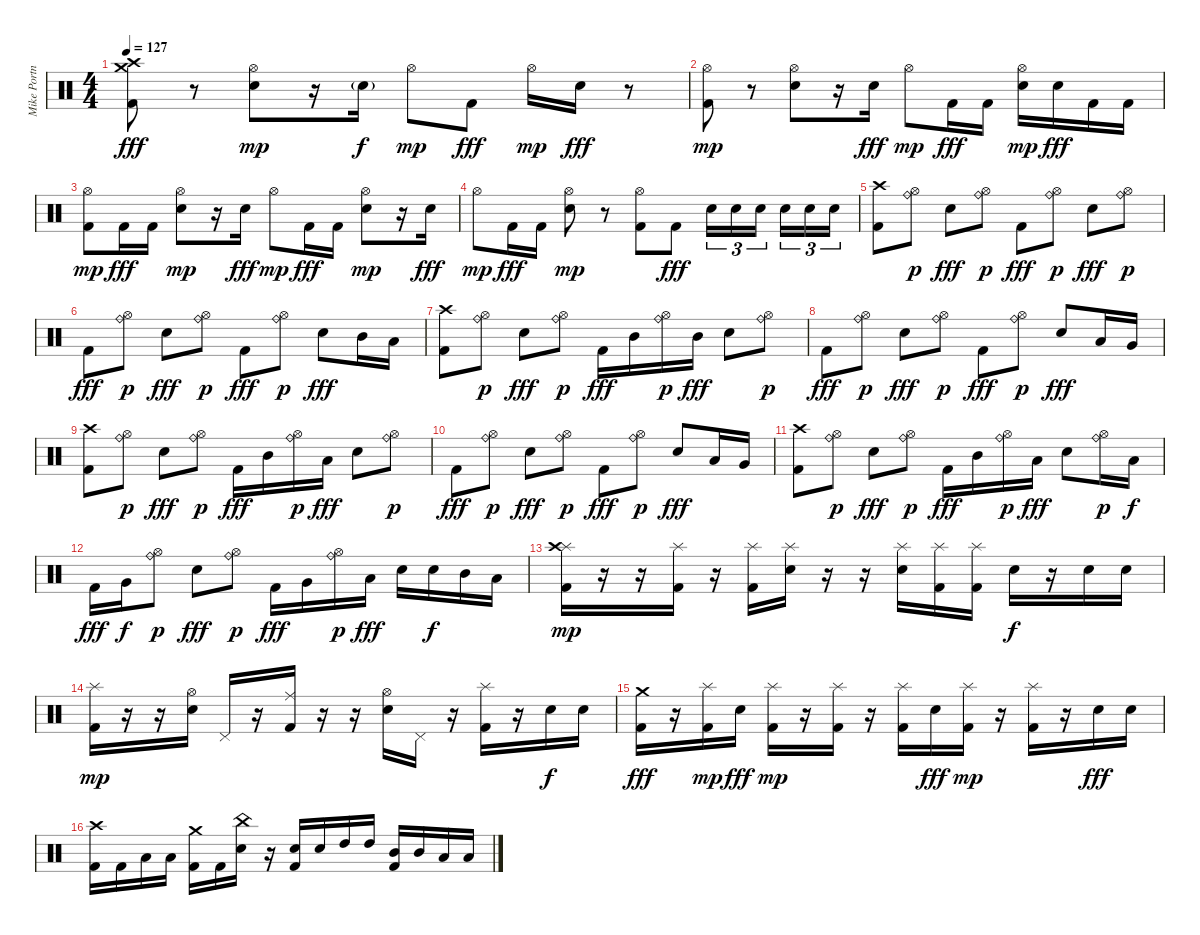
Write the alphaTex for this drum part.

\track ("Mike Portnoy" "Mike Portn") {instrument percussion}
\staff {score}
\articulation defaults
\ts (4 4)
\tempo 127
\clef neutral
\ks c
("Kick (hit) 2" "Crash high (hit)" "Crash medium (hit)").8{dy fff} r.8 ("Electric Snare (hit)" "Hi-Hat (open)").8{dy mp} r.16 "Electric Snare (hit)"{g}.16{dy f} "Hi-Hat (open)".8{dy mp} "Kick (hit) 2".8{dy fff} "Hi-Hat (open)".16{dy mp} "Electric Snare (hit)".16{dy fff} r.8 |
("Kick (hit) 2" "Hi-Hat (open)").8{dy mp} r.8 ("Electric Snare (hit)" "Hi-Hat (open)").8 r.16 "Electric Snare (hit)".16{dy fff} "Hi-Hat (open)".8{dy mp} "Kick (hit) 2".16{dy fff} "Kick (hit) 2".16 ("Electric Snare (hit)" "Hi-Hat (open)").16{dy mp} "Electric Snare (hit)".16{dy fff} "Kick (hit) 2".16 "Kick (hit) 2".16 |
("Kick (hit) 2" "Hi-Hat (open)").8{dy mp} "Kick (hit) 2".16{dy fff} "Kick (hit) 2".16 ("Electric Snare (hit)" "Hi-Hat (open)").8{dy mp} r.16 "Electric Snare (hit)".16{dy fff} "Hi-Hat (open)".8{dy mp} "Kick (hit) 2".16{dy fff} "Kick (hit) 2".16 ("Electric Snare (hit)" "Hi-Hat (open)").8{dy mp} r.16 "Electric Snare (hit)".16{dy fff} |
"Hi-Hat (open)".8{dy mp} "Kick (hit) 2".16{dy fff} "Kick (hit) 2".16 ("Electric Snare (hit)" "Hi-Hat (open)").8{dy mp} r.8 ("Kick (hit) 2" "Hi-Hat (open)").8 "Kick (hit) 2".8{dy fff} "Electric Snare (hit)".16{tu (3 2)} "Electric Snare (hit)".16{tu (3 2)} "Electric Snare (hit)".16{tu (3 2) beam splitsecondary} "Electric Snare (hit)".16{tu (3 2)} "Electric Snare (hit)".16{tu (3 2)} "Electric Snare (hit)".16{tu (3 2)} |
("Kick (hit) 2" "Crash high (hit)").8 ("Ride (bell)" "Hi-Hat (open)").8{dy p} "Electric Snare (hit)".8{dy fff} ("Ride (bell)" "Hi-Hat (open)").8{dy p} "Kick (hit) 2".8{dy fff} ("Ride (bell)" "Hi-Hat (open)").8{dy p} "Electric Snare (hit)".8{dy fff} ("Ride (bell)" "Hi-Hat (open)").8{dy p} |
"Kick (hit) 2".8{dy fff} ("Ride (bell)" "Hi-Hat (open)").8{dy p} "Electric Snare (hit)".8{dy fff} ("Ride (bell)" "Hi-Hat (open)").8{dy p} "Kick (hit) 2".8{dy fff} ("Ride (bell)" "Hi-Hat (open)").8{dy p} "Electric Snare (hit)".8{dy fff} "Mid Tom (hit)".16 "Low Tom (hit)".16 |
("Kick (hit) 2" "Crash high (hit)").8 ("Ride (bell)" "Hi-Hat (open)").8{dy p} "Electric Snare (hit)".8{dy fff} ("Ride (bell)" "Hi-Hat (open)").8{dy p} "Kick (hit) 2".16{dy fff} "Mid Tom (hit)".16 ("Ride (bell)" "Hi-Hat (open)").16{dy p} "Mid Tom (hit)".16{dy fff} "Electric Snare (hit)".8 ("Ride (bell)" "Hi-Hat (open)").8{dy p} |
"Kick (hit) 2".8{dy fff} ("Ride (bell)" "Hi-Hat (open)").8{dy p} "Electric Snare (hit)".8{dy fff} ("Ride (bell)" "Hi-Hat (open)").8{dy p} "Kick (hit) 2".8{dy fff} ("Ride (bell)" "Hi-Hat (open)").8{dy p} "Electric Snare (hit)".8{dy fff} "Low Tom (hit)".16 "Very Low Tom (hit)".16 |
("Kick (hit) 2" "Crash high (hit)").8 ("Ride (bell)" "Hi-Hat (open)").8{dy p} "Electric Snare (hit)".8{dy fff} ("Ride (bell)" "Hi-Hat (open)").8{dy p} "Kick (hit) 2".16{dy fff} "Mid Tom (hit)".16 ("Ride (bell)" "Hi-Hat (open)").16{dy p} "Low Tom (hit)".16{dy fff} "Electric Snare (hit)".8 ("Ride (bell)" "Hi-Hat (open)").8{dy p} |
"Kick (hit) 2".8{dy fff} ("Ride (bell)" "Hi-Hat (open)").8{dy p} "Electric Snare (hit)".8{dy fff} ("Ride (bell)" "Hi-Hat (open)").8{dy p} "Kick (hit) 2".8{dy fff} ("Ride (bell)" "Hi-Hat (open)").8{dy p} "Electric Snare (hit)".8{dy fff} "Low Tom (hit)".16 "Very Low Tom (hit)".16 |
("Kick (hit) 2" "Crash high (hit)").8 ("Ride (bell)" "Hi-Hat (open)").8{dy p} "Electric Snare (hit)".8{dy fff} ("Ride (bell)" "Hi-Hat (open)").8{dy p} "Kick (hit) 2".16{dy fff} "Mid Tom (hit)".16 ("Ride (bell)" "Hi-Hat (open)").16{dy p} "Low Tom (hit)".16{dy fff} "Electric Snare (hit)".8 ("Ride (bell)" "Hi-Hat (open)").16{dy p} "Low Tom (hit)".16{dy f} |
"Kick (hit) 2".16{dy fff} "Very Low Tom (hit)".16{dy f} ("Ride (bell)" "Hi-Hat (open)").8{dy p} "Electric Snare (hit)".8{dy fff} ("Ride (bell)" "Hi-Hat (open)").8{dy p} "Kick (hit) 2".16{dy fff} "Very Low Tom (hit)".16 ("Ride (bell)" "Hi-Hat (open)").16{dy p} "Low Floor Tom (hit)".16{dy fff} "Electric Snare (hit)".16 "Electric Snare (hit)".16{dy f} "Mid Tom (hit)".16 "Low Tom (hit)".16 |
("Kick (hit) 2" "Splash (hit)" "Crash high (hit)").16{dy mp} r.16 r.16 ("Kick (hit) 2" "Splash (hit)").16 r.16 ("Kick (hit) 2" "Splash (hit)").16 ("Electric Snare (hit)" "Splash (hit)").16 r.16 r.16 ("Electric Snare (hit)" "Splash (hit)").16 ("Kick (hit) 2" "Splash (hit)").16 ("Kick (hit) 2" "Splash (hit)").16 "Electric Snare (hit)".16{dy f} r.16 "Electric Snare (hit)".16 "Electric Snare (hit)".16 |
("Kick (hit) 2" "Splash (hit)").16{dy mp} r.16 r.16 ("Electric Snare (hit)" "Hi-Hat (open)").16 "Pedal Hi-Hat (hit)".16 r.16 ("Kick (hit) 2" "Ride (middle)").16 r.16 r.16 ("Electric Snare (hit)" "Hi-Hat (open)").16 "Pedal Hi-Hat (hit)".16 r.16 ("Kick (hit) 2" "Splash (hit)").16 r.16 "Electric Snare (hit)".16{dy f} "Electric Snare (hit)".16 |
("Kick (hit) 2" "Crash medium (hit)").16{dy fff} r.16 ("Kick (hit) 2" "Splash (hit)").16{dy mp} "Electric Snare (hit)".16{dy fff} ("Kick (hit) 2" "Splash (hit)").16{dy mp} r.16 ("Kick (hit) 2" "Splash (hit)").16 r.16 ("Kick (hit) 2" "Splash (hit)").16 "Electric Snare (hit)".16{dy fff} ("Kick (hit) 2" "Splash (hit)").16{dy mp} r.16 ("Kick (hit) 2" "Splash (hit)").16 r.16 "Electric Snare (hit)".16{dy fff} "Electric Snare (hit)".16 |
("Kick (hit) 2" "Crash high (hit)").16 "Kick (hit) 2".16 "Low Tom (hit)".16 "Low Tom (hit)".16 ("Kick (hit) 2" "Crash medium (hit)").16 "Kick (hit) 2".16 ("Electric Snare (hit)" "China (hit)").16 r.16 ("Kick (hit) 2" "Electric Snare (hit)").16 "Electric Snare (hit)".16 "High Tom (hit)".16 "High Tom (hit)".16 ("Kick (hit) 2" "Mid Tom (hit)").16 "Mid Tom (hit)".16 "Low Tom (hit)".16 "Low Tom (hit)".16
